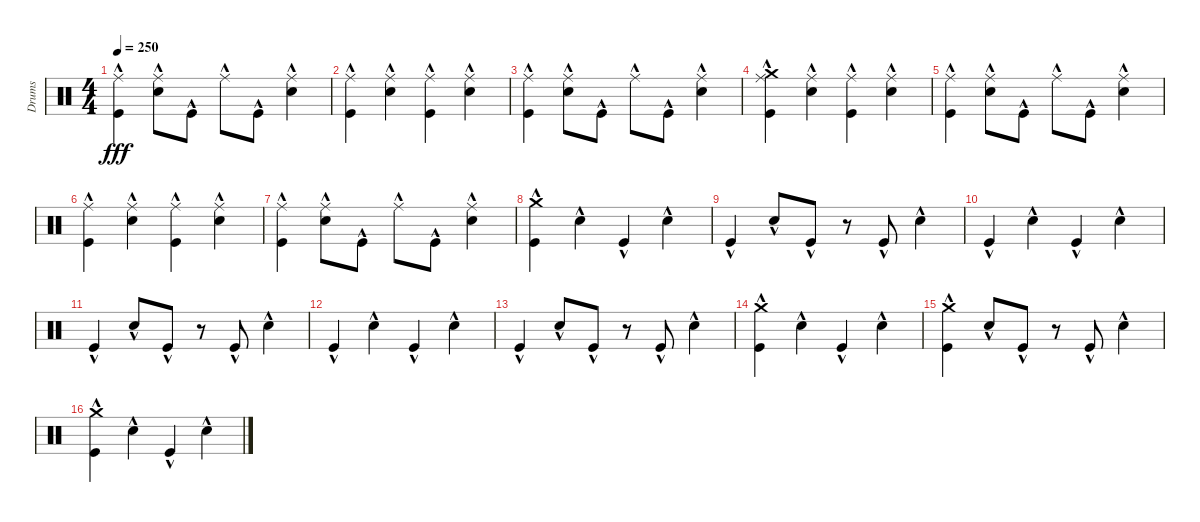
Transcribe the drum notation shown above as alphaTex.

\track ("Drums" "Drums") {instrument percussion}
\staff {score}
\articulation defaults
\ts (4 4)
\tempo 250
\clef neutral
\ks c
("Ride (middle)"{hac} "Kick (hit)"{hac}).4{dy fff} ("Ride (middle)"{hac} "Snare (hit) 2"{hac}).8 "Kick (hit)"{hac}.8 "Ride (middle)"{hac}.8 "Kick (hit)"{hac}.8 ("Ride (middle)"{hac} "Snare (hit) 2"{hac}).4 |
("Ride (middle)"{hac} "Kick (hit)"{hac}).4 ("Ride (middle)"{hac} "Snare (hit) 2"{hac}).4 ("Ride (middle)"{hac} "Kick (hit)"{hac}).4 ("Ride (middle)"{hac} "Snare (hit) 2"{hac}).4 |
("Ride (middle)"{hac} "Kick (hit)"{hac}).4 ("Ride (middle)"{hac} "Snare (hit) 2"{hac}).8 "Kick (hit)"{hac}.8 "Ride (middle)"{hac}.8 "Kick (hit)"{hac}.8 ("Ride (middle)"{hac} "Snare (hit) 2"{hac}).4 |
("Crash medium (hit)"{hac} "Ride (middle)"{hac} "Kick (hit)"{hac}).4 ("Ride (middle)"{hac} "Snare (hit) 2"{hac}).4 ("Ride (middle)"{hac} "Kick (hit)"{hac}).4 ("Ride (middle)"{hac} "Snare (hit) 2"{hac}).4 |
("Ride (middle)"{hac} "Kick (hit)"{hac}).4 ("Ride (middle)"{hac} "Snare (hit) 2"{hac}).8 "Kick (hit)"{hac}.8 "Ride (middle)"{hac}.8 "Kick (hit)"{hac}.8 ("Ride (middle)"{hac} "Snare (hit) 2"{hac}).4 |
("Ride (middle)"{hac} "Kick (hit)"{hac}).4 ("Ride (middle)"{hac} "Snare (hit) 2"{hac}).4 ("Ride (middle)"{hac} "Kick (hit)"{hac}).4 ("Ride (middle)"{hac} "Snare (hit) 2"{hac}).4 |
("Ride (middle)"{hac} "Kick (hit)"{hac}).4 ("Ride (middle)"{hac} "Snare (hit) 2"{hac}).8 "Kick (hit)"{hac}.8 "Ride (middle)"{hac}.8 "Kick (hit)"{hac}.8 ("Ride (middle)"{hac} "Snare (hit) 2"{hac}).4 |
("Crash medium (hit)"{hac} "Kick (hit)"{hac}).4 "Snare (hit) 2"{hac}.4 "Kick (hit)"{hac}.4 "Snare (hit) 2"{hac}.4 |
"Kick (hit)"{hac}.4 "Snare (hit) 2"{hac}.8 "Kick (hit)"{hac}.8 r.8 "Kick (hit)"{hac}.8 "Snare (hit) 2"{hac}.4 |
"Kick (hit)"{hac}.4 "Snare (hit) 2"{hac}.4 "Kick (hit)"{hac}.4 "Snare (hit) 2"{hac}.4 |
"Kick (hit)"{hac}.4 "Snare (hit) 2"{hac}.8 "Kick (hit)"{hac}.8 r.8 "Kick (hit)"{hac}.8 "Snare (hit) 2"{hac}.4 |
"Kick (hit)"{hac}.4 "Snare (hit) 2"{hac}.4 "Kick (hit)"{hac}.4 "Snare (hit) 2"{hac}.4 |
"Kick (hit)"{hac}.4 "Snare (hit) 2"{hac}.8 "Kick (hit)"{hac}.8 r.8 "Kick (hit)"{hac}.8 "Snare (hit) 2"{hac}.4 |
("Crash medium (hit)"{hac} "Kick (hit)"{hac}).4 "Snare (hit) 2"{hac}.4 "Kick (hit)"{hac}.4 "Snare (hit) 2"{hac}.4 |
("Crash medium (hit)" "Kick (hit)"{hac}).4 "Snare (hit) 2"{hac}.8 "Kick (hit)"{hac}.8 r.8 "Kick (hit)"{hac}.8 "Snare (hit) 2"{hac}.4 |
("Crash medium (hit)"{hac} "Kick (hit)"{hac}).4 "Snare (hit) 2"{hac}.4 "Kick (hit)"{hac}.4 "Snare (hit) 2"{hac}.4
